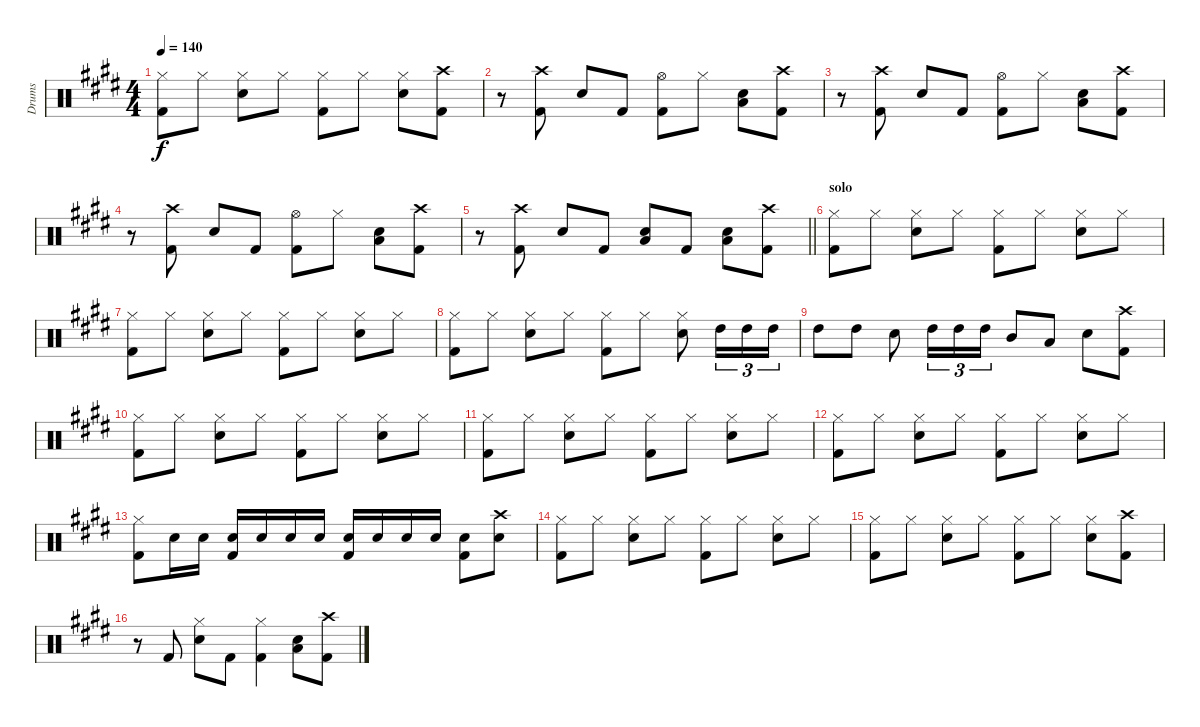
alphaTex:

\track ("Drums" "Drums") {instrument percussion}
\staff {score}
\articulation defaults
\ts (4 4)
\tempo 140
\clef neutral
\ks e
("Hi-Hat (closed)" "Kick (hit) 2").8{dy f} "Hi-Hat (closed)".8 ("Hi-Hat (closed)" "Electric Snare (hit)").8 "Hi-Hat (closed)".8 ("Hi-Hat (closed)" "Kick (hit) 2").8 "Hi-Hat (closed)".8 ("Hi-Hat (closed)" "Electric Snare (hit)").8 ("Crash high (hit)" "Kick (hit) 2").8 |
r.8 ("Crash high (hit)" "Kick (hit) 2").8 "Electric Snare (hit)".8 "Kick (hit) 2".8 ("Hi-Hat (open)" "Kick (hit) 2").8 "Hi-Hat (closed)".8 ("Electric Snare (hit)" "Low Tom (hit)").8 ("Crash high (hit)" "Kick (hit) 2").8 |
r.8 ("Crash high (hit)" "Kick (hit) 2").8 "Electric Snare (hit)".8 "Kick (hit) 2".8 ("Hi-Hat (open)" "Kick (hit) 2").8 "Hi-Hat (closed)".8 ("Electric Snare (hit)" "Low Tom (hit)").8 ("Crash high (hit)" "Kick (hit) 2").8 |
r.8 ("Crash high (hit)" "Kick (hit) 2").8 "Electric Snare (hit)".8 "Kick (hit) 2".8 ("Hi-Hat (open)" "Kick (hit) 2").8 "Hi-Hat (closed)".8 ("Electric Snare (hit)" "Low Tom (hit)").8 ("Crash high (hit)" "Kick (hit) 2").8 |
\barLineRight lightlight
r.8 ("Crash high (hit)" "Kick (hit) 2").8 "Electric Snare (hit)".8 "Kick (hit) 2".8 ("Electric Snare (hit)" "Low Tom (hit)").8 "Kick (hit) 2".8 ("Electric Snare (hit)" "Low Tom (hit)").8 ("Crash high (hit)" "Kick (hit) 2").8 |
\section ("" "solo")
("Hi-Hat (closed)" "Kick (hit) 2").8 "Hi-Hat (closed)".8 ("Hi-Hat (closed)" "Electric Snare (hit)").8 "Hi-Hat (closed)".8 ("Hi-Hat (closed)" "Kick (hit) 2").8 "Hi-Hat (closed)".8 ("Hi-Hat (closed)" "Electric Snare (hit)").8 "Hi-Hat (closed)".8 |
("Hi-Hat (closed)" "Kick (hit) 2").8 "Hi-Hat (closed)".8 ("Hi-Hat (closed)" "Electric Snare (hit)").8 "Hi-Hat (closed)".8 ("Hi-Hat (closed)" "Kick (hit) 2").8 "Hi-Hat (closed)".8 ("Hi-Hat (closed)" "Electric Snare (hit)").8 "Hi-Hat (closed)".8 |
("Hi-Hat (closed)" "Kick (hit) 2").8 "Hi-Hat (closed)".8 ("Hi-Hat (closed)" "Electric Snare (hit)").8 "Hi-Hat (closed)".8 ("Hi-Hat (closed)" "Kick (hit) 2").8 "Hi-Hat (closed)".8 ("Hi-Hat (closed)" "Electric Snare (hit)").8 "High Tom (hit)".16{tu (3 2)} "High Tom (hit)".16{tu (3 2)} "High Tom (hit)".16{tu (3 2)} |
"High Tom (hit)".8 "High Tom (hit)".8 "Electric Snare (hit)".8 "High Tom (hit)".16{tu (3 2)} "High Tom (hit)".16{tu (3 2)} "High Tom (hit)".16{tu (3 2)} "Mid Tom (hit)".8 "Low Tom (hit)".8 "Electric Snare (hit)".8 ("Crash high (hit)" "Kick (hit) 2").8 |
("Hi-Hat (closed)" "Kick (hit) 2").8 "Hi-Hat (closed)".8 ("Hi-Hat (closed)" "Electric Snare (hit)").8 "Hi-Hat (closed)".8 ("Hi-Hat (closed)" "Kick (hit) 2").8 "Hi-Hat (closed)".8 ("Hi-Hat (closed)" "Electric Snare (hit)").8 "Hi-Hat (closed)".8 |
("Hi-Hat (closed)" "Kick (hit) 2").8 "Hi-Hat (closed)".8 ("Hi-Hat (closed)" "Electric Snare (hit)").8 "Hi-Hat (closed)".8 ("Hi-Hat (closed)" "Kick (hit) 2").8 "Hi-Hat (closed)".8 ("Hi-Hat (closed)" "Electric Snare (hit)").8 "Hi-Hat (closed)".8 |
("Hi-Hat (closed)" "Kick (hit) 2").8 "Hi-Hat (closed)".8 ("Hi-Hat (closed)" "Electric Snare (hit)").8 "Hi-Hat (closed)".8 ("Hi-Hat (closed)" "Kick (hit) 2").8 "Hi-Hat (closed)".8 ("Hi-Hat (closed)" "Electric Snare (hit)").8 "Hi-Hat (closed)".8 |
("Hi-Hat (closed)" "Kick (hit) 2").8 "Electric Snare (hit)".16 "Electric Snare (hit)".16 ("Electric Snare (hit)" "Kick (hit) 2").16 "Electric Snare (hit)".16 "Electric Snare (hit)".16 "Electric Snare (hit)".16 ("Electric Snare (hit)" "Kick (hit) 2").16 "Electric Snare (hit)".16 "Electric Snare (hit)".16 "Electric Snare (hit)".16 ("Electric Snare (hit)" "Kick (hit) 2").8 ("Crash high (hit)" "Electric Snare (hit)").8 |
("Hi-Hat (closed)" "Kick (hit) 2").8 "Hi-Hat (closed)".8 ("Hi-Hat (closed)" "Electric Snare (hit)").8 "Hi-Hat (closed)".8 ("Hi-Hat (closed)" "Kick (hit) 2").8 "Hi-Hat (closed)".8 ("Hi-Hat (closed)" "Electric Snare (hit)").8 "Hi-Hat (closed)".8 |
("Hi-Hat (closed)" "Kick (hit) 2").8 "Hi-Hat (closed)".8 ("Hi-Hat (closed)" "Electric Snare (hit)").8 "Hi-Hat (closed)".8 ("Hi-Hat (closed)" "Kick (hit) 2").8 "Hi-Hat (closed)".8 ("Hi-Hat (closed)" "Electric Snare (hit)").8 ("Crash high (hit)" "Kick (hit) 2").8 |
r.8 "Kick (hit) 2".8 ("Hi-Hat (closed)" "Electric Snare (hit)").8 "Kick (hit) 2".8 ("Hi-Hat (closed)" "Kick (hit) 2").4 ("Electric Snare (hit)" "Low Tom (hit)").8 ("Crash high (hit)" "Kick (hit) 2").8
